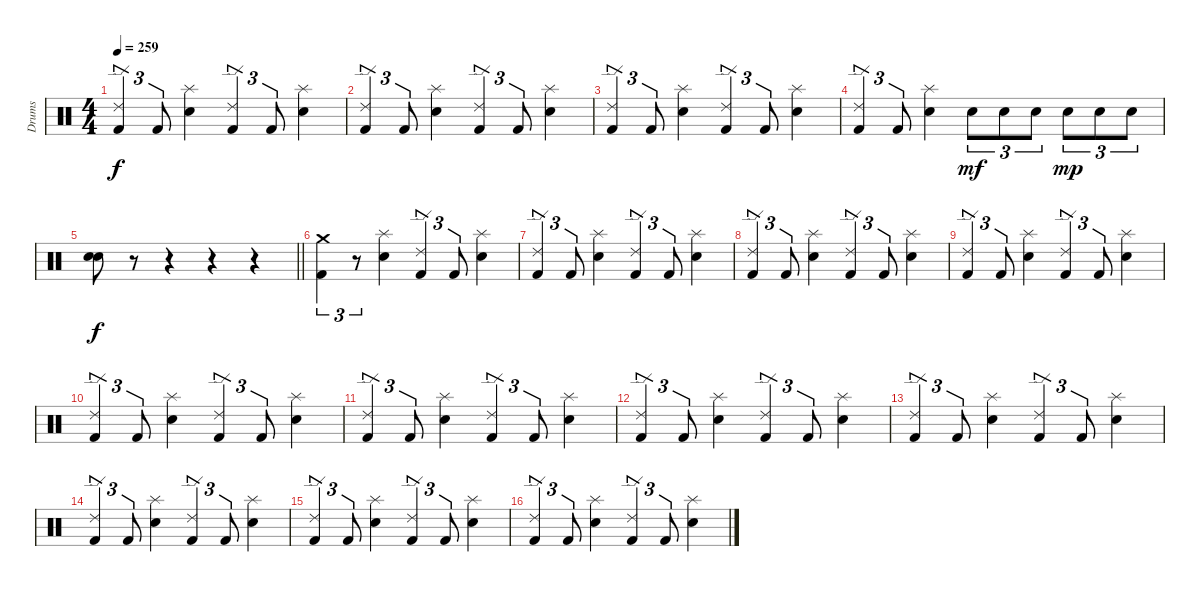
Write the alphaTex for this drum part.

\track ("Drums" "Drums") {instrument percussion}
\staff {score}
\articulation defaults
\ts (4 4)
\tempo 259
\clef neutral
\ks c
("Ride (edge) 2" "Kick (hit) 2").4{tu (3 2) dy f} "Kick (hit) 2".8{tu (3 2)} ("Splash (hit)" "Snare (hit) 2").4 ("Ride (edge) 2" "Kick (hit) 2").4{tu (3 2)} "Kick (hit) 2".8{tu (3 2)} ("Splash (hit)" "Snare (hit) 2").4 |
("Ride (edge) 2" "Kick (hit) 2").4{tu (3 2)} "Kick (hit) 2".8{tu (3 2)} ("Splash (hit)" "Snare (hit) 2").4 ("Ride (edge) 2" "Kick (hit) 2").4{tu (3 2)} "Kick (hit) 2".8{tu (3 2)} ("Splash (hit)" "Snare (hit) 2").4 |
("Ride (edge) 2" "Kick (hit) 2").4{tu (3 2)} "Kick (hit) 2".8{tu (3 2)} ("Splash (hit)" "Snare (hit) 2").4 ("Ride (edge) 2" "Kick (hit) 2").4{tu (3 2)} "Kick (hit) 2".8{tu (3 2)} ("Splash (hit)" "Snare (hit) 2").4 |
("Ride (edge) 2" "Kick (hit) 2").4{tu (3 2)} "Kick (hit) 2".8{tu (3 2)} ("Splash (hit)" "Snare (hit) 2").4 "Electric Snare (hit)".8{tu (3 2) dy mf} "Electric Snare (hit)".8{tu (3 2)} "Electric Snare (hit)".8{tu (3 2)} "Electric Snare (hit)".8{tu (3 2) dy mp} "Electric Snare (hit)".8{tu (3 2)} "Electric Snare (hit)".8{tu (3 2)} |
\barLineRight lightlight
("Electric Snare (hit)" "Snare (hit) 2").8{dy f} r.8 r.4 r.4 r.4 |
("Crash medium (hit)" "Kick (hit) 2").4{tu (3 2)} r.8{tu (3 2)} ("Splash (hit)" "Snare (hit) 2").4 ("Ride (edge) 2" "Kick (hit) 2").4{tu (3 2)} "Kick (hit) 2".8{tu (3 2)} ("Splash (hit)" "Snare (hit) 2").4 |
("Ride (edge) 2" "Kick (hit) 2").4{tu (3 2)} "Kick (hit) 2".8{tu (3 2)} ("Splash (hit)" "Snare (hit) 2").4 ("Ride (edge) 2" "Kick (hit) 2").4{tu (3 2)} "Kick (hit) 2".8{tu (3 2)} ("Splash (hit)" "Snare (hit) 2").4 |
("Ride (edge) 2" "Kick (hit) 2").4{tu (3 2)} "Kick (hit) 2".8{tu (3 2)} ("Splash (hit)" "Snare (hit) 2").4 ("Ride (edge) 2" "Kick (hit) 2").4{tu (3 2)} "Kick (hit) 2".8{tu (3 2)} ("Splash (hit)" "Snare (hit) 2").4 |
("Ride (edge) 2" "Kick (hit) 2").4{tu (3 2)} "Kick (hit) 2".8{tu (3 2)} ("Splash (hit)" "Snare (hit) 2").4 ("Ride (edge) 2" "Kick (hit) 2").4{tu (3 2)} "Kick (hit) 2".8{tu (3 2)} ("Splash (hit)" "Snare (hit) 2").4 |
("Ride (edge) 2" "Kick (hit) 2").4{tu (3 2)} "Kick (hit) 2".8{tu (3 2)} ("Splash (hit)" "Snare (hit) 2").4 ("Ride (edge) 2" "Kick (hit) 2").4{tu (3 2)} "Kick (hit) 2".8{tu (3 2)} ("Splash (hit)" "Snare (hit) 2").4 |
("Ride (edge) 2" "Kick (hit) 2").4{tu (3 2)} "Kick (hit) 2".8{tu (3 2)} ("Splash (hit)" "Snare (hit) 2").4 ("Ride (edge) 2" "Kick (hit) 2").4{tu (3 2)} "Kick (hit) 2".8{tu (3 2)} ("Splash (hit)" "Snare (hit) 2").4 |
("Ride (edge) 2" "Kick (hit) 2").4{tu (3 2)} "Kick (hit) 2".8{tu (3 2)} ("Splash (hit)" "Snare (hit) 2").4 ("Ride (edge) 2" "Kick (hit) 2").4{tu (3 2)} "Kick (hit) 2".8{tu (3 2)} ("Splash (hit)" "Snare (hit) 2").4 |
("Ride (edge) 2" "Kick (hit) 2").4{tu (3 2)} "Kick (hit) 2".8{tu (3 2)} ("Splash (hit)" "Snare (hit) 2").4 ("Ride (edge) 2" "Kick (hit) 2").4{tu (3 2)} "Kick (hit) 2".8{tu (3 2)} ("Splash (hit)" "Snare (hit) 2").4 |
("Ride (edge) 2" "Kick (hit) 2").4{tu (3 2)} "Kick (hit) 2".8{tu (3 2)} ("Splash (hit)" "Snare (hit) 2").4 ("Ride (edge) 2" "Kick (hit) 2").4{tu (3 2)} "Kick (hit) 2".8{tu (3 2)} ("Splash (hit)" "Snare (hit) 2").4 |
("Ride (edge) 2" "Kick (hit) 2").4{tu (3 2)} "Kick (hit) 2".8{tu (3 2)} ("Splash (hit)" "Snare (hit) 2").4 ("Ride (edge) 2" "Kick (hit) 2").4{tu (3 2)} "Kick (hit) 2".8{tu (3 2)} ("Splash (hit)" "Snare (hit) 2").4 |
("Ride (edge) 2" "Kick (hit) 2").4{tu (3 2)} "Kick (hit) 2".8{tu (3 2)} ("Splash (hit)" "Snare (hit) 2").4 ("Ride (edge) 2" "Kick (hit) 2").4{tu (3 2)} "Kick (hit) 2".8{tu (3 2)} ("Splash (hit)" "Snare (hit) 2").4
